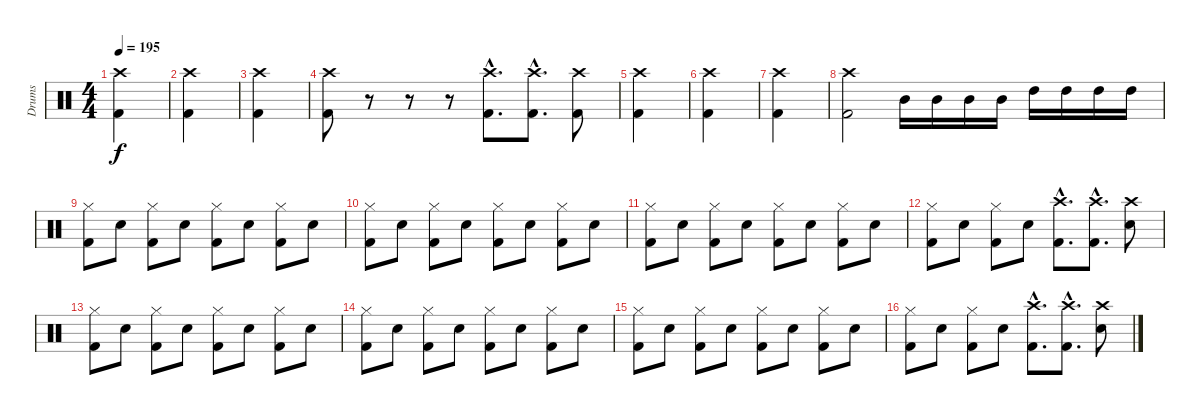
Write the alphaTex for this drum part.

\track ("Drums" "Drums") {instrument percussion}
\staff {score}
\articulation defaults
\ts (4 4)
\tempo 195
\clef neutral
\ks c
("Kick (hit) 2" "Crash high (hit)").4{dy f} |
("Kick (hit) 2" "Crash high (hit)").4 |
("Kick (hit) 2" "Crash high (hit)").4 |
("Kick (hit) 2" "Crash high (hit)").8 r.8 r.8 r.8 ("Kick (hit) 2"{hac} "Crash high (hit)"{hac}).8{d} ("Kick (hit) 2"{hac} "Crash high (hit)"{hac}).8{d} ("Kick (hit) 2" "Crash high (hit)").8 |
("Kick (hit) 2" "Crash high (hit)").4 |
("Kick (hit) 2" "Crash high (hit)").4 |
("Kick (hit) 2" "Crash high (hit)").4 |
("Kick (hit) 2" "Crash high (hit)").2 "Mid Tom (hit)".16 "Mid Tom (hit)".16 "Mid Tom (hit)".16 "Mid Tom (hit)".16 "High Tom (hit)".16 "High Tom (hit)".16 "High Tom (hit)".16 "High Tom (hit)".16 |
("Kick (hit) 2" "Hi-Hat (closed)").8 "Snare (hit) 2".8 ("Kick (hit) 2" "Hi-Hat (closed)").8 "Snare (hit) 2".8 ("Kick (hit) 2" "Hi-Hat (closed)").8 "Snare (hit) 2".8 ("Kick (hit) 2" "Hi-Hat (closed)").8 "Snare (hit) 2".8 |
("Kick (hit) 2" "Hi-Hat (closed)").8 "Snare (hit) 2".8 ("Kick (hit) 2" "Hi-Hat (closed)").8 "Snare (hit) 2".8 ("Kick (hit) 2" "Hi-Hat (closed)").8 "Snare (hit) 2".8 ("Kick (hit) 2" "Hi-Hat (closed)").8 "Snare (hit) 2".8 |
("Kick (hit) 2" "Hi-Hat (closed)").8 "Snare (hit) 2".8 ("Kick (hit) 2" "Hi-Hat (closed)").8 "Snare (hit) 2".8 ("Kick (hit) 2" "Hi-Hat (closed)").8 "Snare (hit) 2".8 ("Kick (hit) 2" "Hi-Hat (closed)").8 "Snare (hit) 2".8 |
("Kick (hit) 2" "Hi-Hat (closed)").8 "Snare (hit) 2".8 ("Kick (hit) 2" "Hi-Hat (closed)").8 "Snare (hit) 2".8 ("Kick (hit) 2"{hac} "Crash high (hit)"{hac}).8{d} ("Kick (hit) 2"{hac} "Crash high (hit)"{hac}).8{d} ("Snare (hit) 2" "Crash high (hit)").8 |
("Kick (hit) 2" "Hi-Hat (closed)").8 "Snare (hit) 2".8 ("Kick (hit) 2" "Hi-Hat (closed)").8 "Snare (hit) 2".8 ("Kick (hit) 2" "Hi-Hat (closed)").8 "Snare (hit) 2".8 ("Kick (hit) 2" "Hi-Hat (closed)").8 "Snare (hit) 2".8 |
("Kick (hit) 2" "Hi-Hat (closed)").8 "Snare (hit) 2".8 ("Kick (hit) 2" "Hi-Hat (closed)").8 "Snare (hit) 2".8 ("Kick (hit) 2" "Hi-Hat (closed)").8 "Snare (hit) 2".8 ("Kick (hit) 2" "Hi-Hat (closed)").8 "Snare (hit) 2".8 |
("Kick (hit) 2" "Hi-Hat (closed)").8 "Snare (hit) 2".8 ("Kick (hit) 2" "Hi-Hat (closed)").8 "Snare (hit) 2".8 ("Kick (hit) 2" "Hi-Hat (closed)").8 "Snare (hit) 2".8 ("Kick (hit) 2" "Hi-Hat (closed)").8 "Snare (hit) 2".8 |
("Kick (hit) 2" "Hi-Hat (closed)").8 "Snare (hit) 2".8 ("Kick (hit) 2" "Hi-Hat (closed)").8 "Snare (hit) 2".8 ("Kick (hit) 2"{hac} "Crash high (hit)"{hac}).8{d} ("Kick (hit) 2"{hac} "Crash high (hit)"{hac}).8{d} ("Snare (hit) 2" "Crash high (hit)").8
